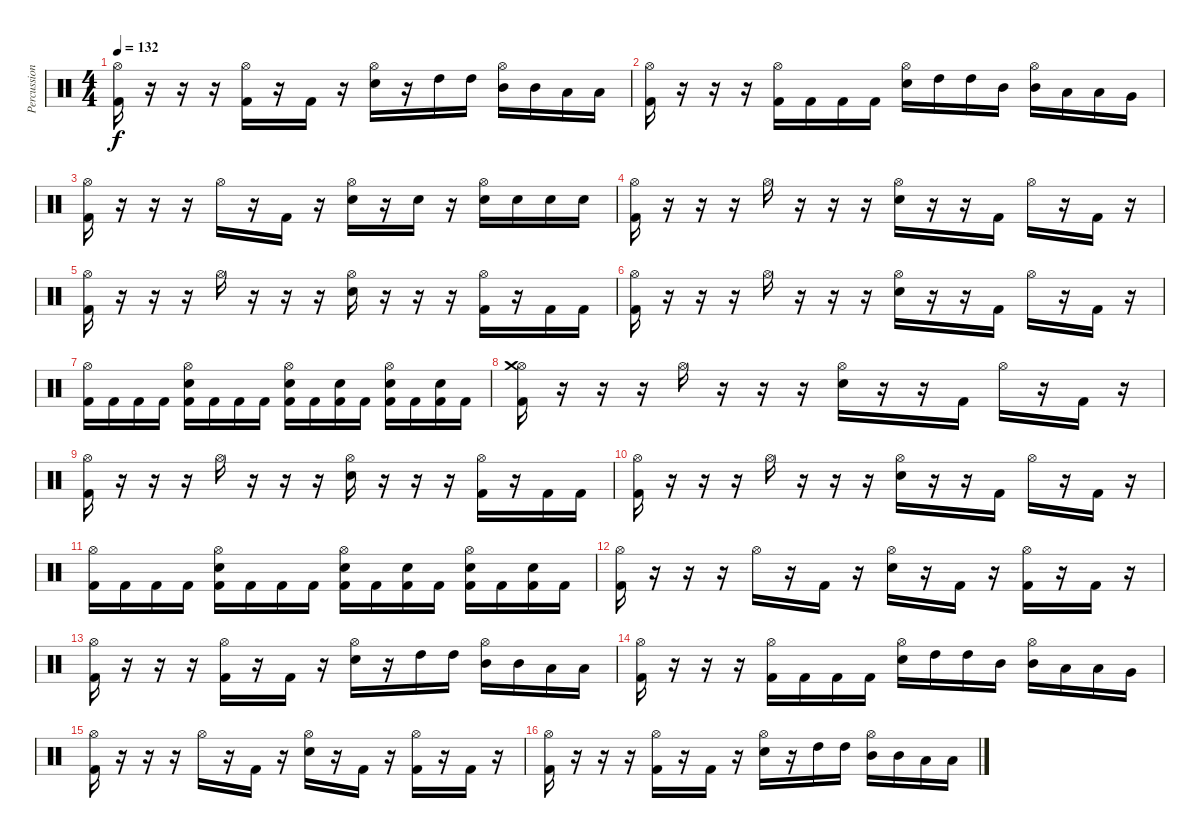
\track ("Percussion" "Percussion") {instrument percussion}
\staff {score}
\articulation defaults
\ts (4 4)
\tempo 132
\clef neutral
\ks c
("Hi-Hat (open)" "Kick (hit) 2").16{dy f} r.16 r.16 r.16 ("Hi-Hat (open)" "Kick (hit) 2").16 r.16 "Kick (hit) 2".16 r.16 ("Hi-Hat (open)" "Snare (hit) 2").16 r.16 "High Tom (hit)".16 "High Tom (hit)".16 ("Hi-Hat (open)" "Mid Tom (hit)").16 "Mid Tom (hit)".16 "Low Tom (hit)".16 "Low Tom (hit)".16 |
("Hi-Hat (open)" "Kick (hit) 2").16 r.16 r.16 r.16 ("Hi-Hat (open)" "Kick (hit) 2").16 "Kick (hit) 2".16 "Kick (hit) 2".16 "Kick (hit) 2".16 ("Hi-Hat (open)" "Snare (hit) 2").16 "High Tom (hit)".16 "High Tom (hit)".16 "Mid Tom (hit)".16 ("Hi-Hat (open)" "Mid Tom (hit)").16 "Low Tom (hit)".16 "Low Tom (hit)".16 "Very Low Tom (hit)".16 |
("Hi-Hat (open)" "Kick (hit) 2").16 r.16 r.16 r.16 "Hi-Hat (open)".16 r.16 "Kick (hit) 2".16 r.16 ("Hi-Hat (open)" "Snare (hit) 2").16 r.16 "Snare (hit) 2".16 r.16 ("Hi-Hat (open)" "Snare (hit) 2").16 "Snare (hit) 2".16 "Snare (hit) 2".16 "Snare (hit) 2".16 |
("Hi-Hat (open)" "Kick (hit) 2").16 r.16 r.16 r.16 "Hi-Hat (open)".16 r.16 r.16 r.16 ("Hi-Hat (open)" "Snare (hit) 2").16 r.16 r.16 "Kick (hit) 2".16 "Hi-Hat (open)".16 r.16 "Kick (hit) 2".16 r.16 |
("Hi-Hat (open)" "Kick (hit) 2").16 r.16 r.16 r.16 "Hi-Hat (open)".16 r.16 r.16 r.16 ("Hi-Hat (open)" "Snare (hit) 2").16 r.16 r.16 r.16 ("Hi-Hat (open)" "Kick (hit) 2").16 r.16 "Kick (hit) 2".16 "Kick (hit) 2".16 |
("Hi-Hat (open)" "Kick (hit) 2").16 r.16 r.16 r.16 "Hi-Hat (open)".16 r.16 r.16 r.16 ("Hi-Hat (open)" "Snare (hit) 2").16 r.16 r.16 "Kick (hit) 2".16 "Hi-Hat (open)".16 r.16 "Kick (hit) 2".16 r.16 |
("Hi-Hat (open)" "Kick (hit) 2").16 "Kick (hit) 2".16 "Kick (hit) 2".16 "Kick (hit) 2".16 ("Hi-Hat (open)" "Snare (hit) 2" "Kick (hit) 2").16 "Kick (hit) 2".16 "Kick (hit) 2".16 "Kick (hit) 2".16 ("Hi-Hat (open)" "Snare (hit) 2" "Kick (hit) 2").16 "Kick (hit) 2".16 ("Snare (hit) 2" "Kick (hit) 2").16 "Kick (hit) 2".16 ("Hi-Hat (open)" "Snare (hit) 2" "Kick (hit) 2").16 "Kick (hit) 2".16 ("Snare (hit) 2" "Kick (hit) 2").16 "Kick (hit) 2".16 |
("Hi-Hat (open)" "Crash medium (hit)" "Kick (hit) 2").16 r.16 r.16 r.16 "Hi-Hat (open)".16 r.16 r.16 r.16 ("Hi-Hat (open)" "Snare (hit) 2").16 r.16 r.16 "Kick (hit) 2".16 "Hi-Hat (open)".16 r.16 "Kick (hit) 2".16 r.16 |
("Hi-Hat (open)" "Kick (hit) 2").16 r.16 r.16 r.16 "Hi-Hat (open)".16 r.16 r.16 r.16 ("Hi-Hat (open)" "Snare (hit) 2").16 r.16 r.16 r.16 ("Hi-Hat (open)" "Kick (hit) 2").16 r.16 "Kick (hit) 2".16 "Kick (hit) 2".16 |
("Hi-Hat (open)" "Kick (hit) 2").16 r.16 r.16 r.16 "Hi-Hat (open)".16 r.16 r.16 r.16 ("Hi-Hat (open)" "Snare (hit) 2").16 r.16 r.16 "Kick (hit) 2".16 "Hi-Hat (open)".16 r.16 "Kick (hit) 2".16 r.16 |
("Hi-Hat (open)" "Kick (hit) 2").16 "Kick (hit) 2".16 "Kick (hit) 2".16 "Kick (hit) 2".16 ("Hi-Hat (open)" "Snare (hit) 2" "Kick (hit) 2").16 "Kick (hit) 2".16 "Kick (hit) 2".16 "Kick (hit) 2".16 ("Hi-Hat (open)" "Snare (hit) 2" "Kick (hit) 2").16 "Kick (hit) 2".16 ("Snare (hit) 2" "Kick (hit) 2").16 "Kick (hit) 2".16 ("Hi-Hat (open)" "Snare (hit) 2" "Kick (hit) 2").16 "Kick (hit) 2".16 ("Snare (hit) 2" "Kick (hit) 2").16 "Kick (hit) 2".16 |
("Hi-Hat (open)" "Kick (hit) 2").16 r.16 r.16 r.16 "Hi-Hat (open)".16 r.16 "Kick (hit) 2".16 r.16 ("Hi-Hat (open)" "Snare (hit) 2").16 r.16 "Kick (hit) 2".16 r.16 ("Hi-Hat (open)" "Kick (hit) 2").16 r.16 "Kick (hit) 2".16 r.16 |
("Hi-Hat (open)" "Kick (hit) 2").16 r.16 r.16 r.16 ("Hi-Hat (open)" "Kick (hit) 2").16 r.16 "Kick (hit) 2".16 r.16 ("Hi-Hat (open)" "Snare (hit) 2").16 r.16 "High Tom (hit)".16 "High Tom (hit)".16 ("Hi-Hat (open)" "Mid Tom (hit)").16 "Mid Tom (hit)".16 "Low Tom (hit)".16 "Low Tom (hit)".16 |
("Hi-Hat (open)" "Kick (hit) 2").16 r.16 r.16 r.16 ("Hi-Hat (open)" "Kick (hit) 2").16 "Kick (hit) 2".16 "Kick (hit) 2".16 "Kick (hit) 2".16 ("Hi-Hat (open)" "Snare (hit) 2").16 "High Tom (hit)".16 "High Tom (hit)".16 "Mid Tom (hit)".16 ("Hi-Hat (open)" "Mid Tom (hit)").16 "Low Tom (hit)".16 "Low Tom (hit)".16 "Very Low Tom (hit)".16 |
("Hi-Hat (open)" "Kick (hit) 2").16 r.16 r.16 r.16 "Hi-Hat (open)".16 r.16 "Kick (hit) 2".16 r.16 ("Hi-Hat (open)" "Snare (hit) 2").16 r.16 "Kick (hit) 2".16 r.16 ("Hi-Hat (open)" "Kick (hit) 2").16 r.16 "Kick (hit) 2".16 r.16 |
("Hi-Hat (open)" "Kick (hit) 2").16 r.16 r.16 r.16 ("Hi-Hat (open)" "Kick (hit) 2").16 r.16 "Kick (hit) 2".16 r.16 ("Hi-Hat (open)" "Snare (hit) 2").16 r.16 "High Tom (hit)".16 "High Tom (hit)".16 ("Hi-Hat (open)" "Mid Tom (hit)").16 "Mid Tom (hit)".16 "Low Tom (hit)".16 "Low Tom (hit)".16
